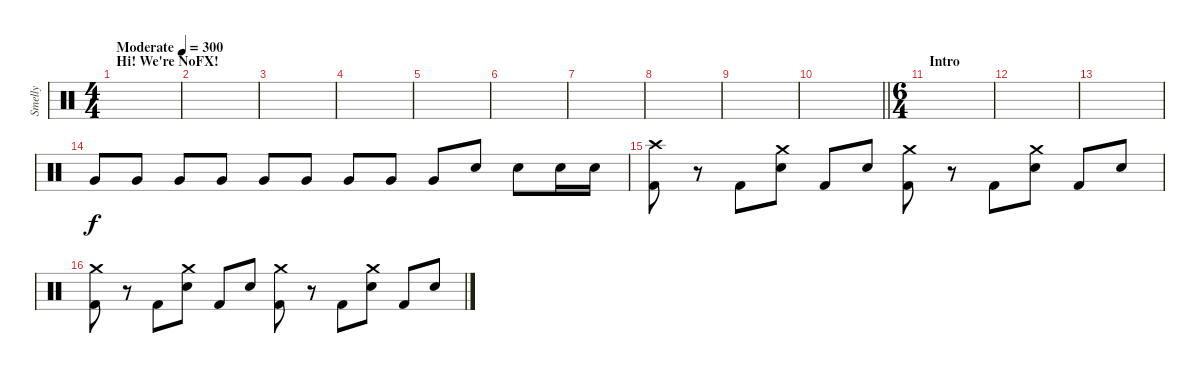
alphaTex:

\track ("Smelly" "Smelly") {instrument percussion}
\staff {score}
\articulation defaults
\ts (4 4)
\section ("" "Hi! We're NoFX!")
\tempo (300 "Moderate")
\clef neutral
\ks c
|
|
|
|
|
|
|
|
|
\barLineRight lightlight
|
\ts (6 4)
\section ("" "Intro")
|
|
|
"Very Low Tom (hit)".8 "Very Low Tom (hit)".8 "Very Low Tom (hit)".8 "Very Low Tom (hit)".8 "Very Low Tom (hit)".8 "Very Low Tom (hit)".8 "Very Low Tom (hit)".8 "Very Low Tom (hit)".8 "Very Low Tom (hit)".8 "Electric Snare (hit)".8 "Electric Snare (hit)".8 "Electric Snare (hit)".16 "Electric Snare (hit)".16 |
("Crash high (hit)" "Kick (hit) 2").8 r.8 "Kick (hit) 2".8 ("Crash medium (hit)" "Electric Snare (hit)").8 "Kick (hit) 2".8 "Electric Snare (hit)".8 ("Crash medium (hit)" "Kick (hit) 2").8 r.8 "Kick (hit) 2".8 ("Crash medium (hit)" "Electric Snare (hit)").8 "Kick (hit) 2".8 "Electric Snare (hit)".8 |
("Crash medium (hit)" "Kick (hit) 2").8 r.8 "Kick (hit) 2".8 ("Crash medium (hit)" "Electric Snare (hit)").8 "Kick (hit) 2".8 "Electric Snare (hit)".8 ("Crash medium (hit)" "Kick (hit) 2").8 r.8 "Kick (hit) 2".8 ("Crash medium (hit)" "Electric Snare (hit)").8 "Kick (hit) 2".8 "Electric Snare (hit)".8
